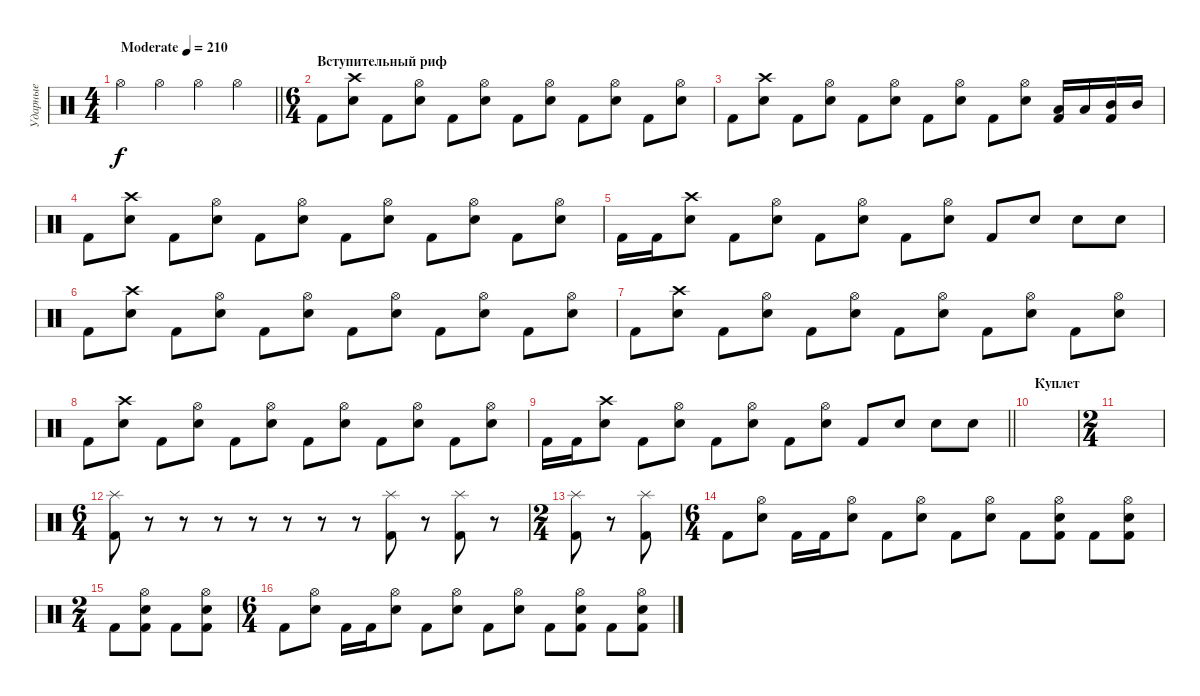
\track ("Ударные" "Ударные") {mute instrument percussion}
\staff {score}
\articulation defaults
\ts (4 4)
\tempo (210 "Moderate")
\clef neutral
\barLineRight lightlight
\ks c "Hi-Hat (open)".4{dy f} "Hi-Hat (open)".4 "Hi-Hat (open)".4 "Hi-Hat (open)".4
|
\ts (6 4)
\section ("" "Вступительный риф")
"Kick (hit) 2".8 ("Electric Snare (hit)" "Crash high (hit)").8 "Kick (hit) 2".8 ("Electric Snare (hit)" "Hi-Hat (open)").8 "Kick (hit) 2".8 ("Electric Snare (hit)" "Hi-Hat (open)").8 "Kick (hit) 2".8 ("Electric Snare (hit)" "Hi-Hat (open)").8 "Kick (hit) 2".8 ("Electric Snare (hit)" "Hi-Hat (open)").8 "Kick (hit) 2".8 ("Electric Snare (hit)" "Hi-Hat (open)").8 |
"Kick (hit) 2".8 ("Electric Snare (hit)" "Crash high (hit)").8 "Kick (hit) 2".8 ("Electric Snare (hit)" "Hi-Hat (open)").8 "Kick (hit) 2".8 ("Electric Snare (hit)" "Hi-Hat (open)").8 "Kick (hit) 2".8 ("Electric Snare (hit)" "Hi-Hat (open)").8 "Kick (hit) 2".8 ("Electric Snare (hit)" "Hi-Hat (open)").8 ("Kick (hit) 2" "Low Tom (hit)").16 "Low Tom (hit)".16 ("Kick (hit) 2" "Mid Tom (hit)").16 "Mid Tom (hit)".16 |
"Kick (hit) 2".8 ("Electric Snare (hit)" "Crash high (hit)").8 "Kick (hit) 2".8 ("Electric Snare (hit)" "Hi-Hat (open)").8 "Kick (hit) 2".8 ("Electric Snare (hit)" "Hi-Hat (open)").8 "Kick (hit) 2".8 ("Electric Snare (hit)" "Hi-Hat (open)").8 "Kick (hit) 2".8 ("Electric Snare (hit)" "Hi-Hat (open)").8 "Kick (hit) 2".8 ("Electric Snare (hit)" "Hi-Hat (open)").8 |
"Kick (hit) 2".16 "Kick (hit) 2".16 ("Electric Snare (hit)" "Crash high (hit)").8 "Kick (hit) 2".8 ("Electric Snare (hit)" "Hi-Hat (open)").8 "Kick (hit) 2".8 ("Electric Snare (hit)" "Hi-Hat (open)").8 "Kick (hit) 2".8 ("Electric Snare (hit)" "Hi-Hat (open)").8 "Kick (hit) 2".8 "Electric Snare (hit)".8 "Electric Snare (hit)".8 "Electric Snare (hit)".8 |
"Kick (hit) 2".8 ("Electric Snare (hit)" "Crash high (hit)").8 "Kick (hit) 2".8 ("Electric Snare (hit)" "Hi-Hat (open)").8 "Kick (hit) 2".8 ("Electric Snare (hit)" "Hi-Hat (open)").8 "Kick (hit) 2".8 ("Electric Snare (hit)" "Hi-Hat (open)").8 "Kick (hit) 2".8 ("Electric Snare (hit)" "Hi-Hat (open)").8 "Kick (hit) 2".8 ("Electric Snare (hit)" "Hi-Hat (open)").8 |
"Kick (hit) 2".8 ("Electric Snare (hit)" "Crash high (hit)").8 "Kick (hit) 2".8 ("Electric Snare (hit)" "Hi-Hat (open)").8 "Kick (hit) 2".8 ("Electric Snare (hit)" "Hi-Hat (open)").8 "Kick (hit) 2".8 ("Electric Snare (hit)" "Hi-Hat (open)").8 "Kick (hit) 2".8 ("Electric Snare (hit)" "Hi-Hat (open)").8 "Kick (hit) 2".8 ("Electric Snare (hit)" "Hi-Hat (open)").8 |
"Kick (hit) 2".8 ("Electric Snare (hit)" "Crash high (hit)").8 "Kick (hit) 2".8 ("Electric Snare (hit)" "Hi-Hat (open)").8 "Kick (hit) 2".8 ("Electric Snare (hit)" "Hi-Hat (open)").8 "Kick (hit) 2".8 ("Electric Snare (hit)" "Hi-Hat (open)").8 "Kick (hit) 2".8 ("Electric Snare (hit)" "Hi-Hat (open)").8 "Kick (hit) 2".8 ("Electric Snare (hit)" "Hi-Hat (open)").8 |
\barLineRight lightlight "Kick (hit) 2".16 "Kick (hit) 2".16
("Electric Snare (hit)" "Crash high (hit)").8 "Kick (hit) 2".8 ("Electric Snare (hit)" "Hi-Hat (open)").8 "Kick (hit) 2".8 ("Electric Snare (hit)" "Hi-Hat (open)").8 "Kick (hit) 2".8 ("Electric Snare (hit)" "Hi-Hat (open)").8 "Kick (hit) 2".8 "Electric Snare (hit)".8 "Electric Snare (hit)".8 "Electric Snare (hit)".8 |
\section ("" "Куплет")
|
\ts (2 4)
|
\ts (6 4)
("Splash (hit)" "Kick (hit) 2").8 r.8 r.8 r.8 r.8 r.8 r.8 r.8 ("Kick (hit) 2" "Splash (hit)").8 r.8 ("Kick (hit) 2" "Splash (hit)").8 r.8 |
\ts (2 4)
("Kick (hit) 2" "Splash (hit)").8 r.8 ("Kick (hit) 2" "Splash (hit)").8 |
\ts (6 4)
"Kick (hit) 2".8 ("Electric Snare (hit)" "Hi-Hat (open)").8 "Kick (hit) 2".16 "Kick (hit) 2".16 ("Electric Snare (hit)" "Hi-Hat (open)").8 "Kick (hit) 2".8 ("Electric Snare (hit)" "Hi-Hat (open)").8 "Kick (hit) 2".8 ("Electric Snare (hit)" "Hi-Hat (open)").8 "Kick (hit) 2".8 ("Kick (hit) 2" "Electric Snare (hit)" "Hi-Hat (open)").8 "Kick (hit) 2".8 ("Kick (hit) 2" "Electric Snare (hit)" "Hi-Hat (open)").8 |
\ts (2 4)
"Kick (hit) 2".8 ("Kick (hit) 2" "Electric Snare (hit)" "Hi-Hat (open)").8 "Kick (hit) 2".8 ("Electric Snare (hit)" "Hi-Hat (open)" "Kick (hit) 2").8 |
\ts (6 4)
"Kick (hit) 2".8 ("Electric Snare (hit)" "Hi-Hat (open)").8 "Kick (hit) 2".16 "Kick (hit) 2".16 ("Electric Snare (hit)" "Hi-Hat (open)").8 "Kick (hit) 2".8 ("Electric Snare (hit)" "Hi-Hat (open)").8 "Kick (hit) 2".8 ("Electric Snare (hit)" "Hi-Hat (open)").8 "Kick (hit) 2".8 ("Kick (hit) 2" "Electric Snare (hit)" "Hi-Hat (open)").8 "Kick (hit) 2".8 ("Kick (hit) 2" "Electric Snare (hit)" "Hi-Hat (open)").8
